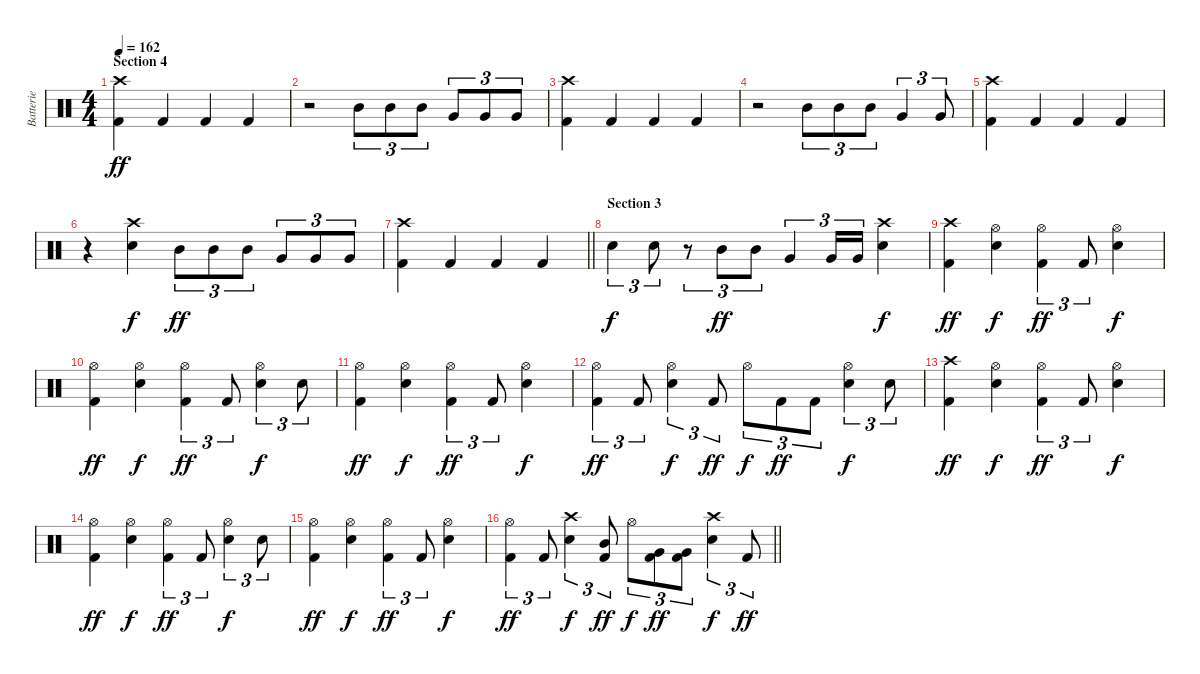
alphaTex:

\track ("Batterie" "Batterie") {instrument percussion}
\staff {score}
\articulation defaults
\ts (4 4)
\section ("" "Section 4")
\tempo 162
\clef neutral
\ks c
("Crash high (hit)" "Kick (hit) 2").4{dy ff} "Kick (hit) 2".4 "Kick (hit) 2".4 "Kick (hit) 2".4 |
r.2 "Mid Tom (hit)".8{tu (3 2)} "Mid Tom (hit)".8{tu (3 2)} "Mid Tom (hit)".8{tu (3 2)} "Very Low Tom (hit)".8{tu (3 2)} "Very Low Tom (hit)".8{tu (3 2)} "Very Low Tom (hit)".8{tu (3 2)} |
("Crash high (hit)" "Kick (hit) 2").4 "Kick (hit) 2".4 "Kick (hit) 2".4 "Kick (hit) 2".4 |
r.2 "Mid Tom (hit)".8{tu (3 2)} "Mid Tom (hit)".8{tu (3 2)} "Mid Tom (hit)".8{tu (3 2)} "Very Low Tom (hit)".4{tu (3 2)} "Very Low Tom (hit)".8{tu (3 2)} |
("Crash high (hit)" "Kick (hit) 2").4 "Kick (hit) 2".4 "Kick (hit) 2".4 "Kick (hit) 2".4 |
r.4 ("Crash high (hit)" "Snare (hit) 2").4{dy f} "Mid Tom (hit)".8{tu (3 2) dy ff} "Mid Tom (hit)".8{tu (3 2)} "Mid Tom (hit)".8{tu (3 2)} "Very Low Tom (hit)".8{tu (3 2)} "Very Low Tom (hit)".8{tu (3 2)} "Very Low Tom (hit)".8{tu (3 2)} |
\barLineRight lightlight
("Crash high (hit)" "Kick (hit) 2").4 "Kick (hit) 2".4 "Kick (hit) 2".4 "Kick (hit) 2".4 |
\section ("" "Section 3")
"Snare (hit) 2".4{tu (3 2) dy f} "Snare (hit) 2".8{tu (3 2)} r.8{tu (3 2)} "Mid Tom (hit)".8{tu (3 2) dy ff} "Mid Tom (hit)".8{tu (3 2)} "Very Low Tom (hit)".4{tu (3 2)} "Very Low Tom (hit)".16{tu (3 2)} "Very Low Tom (hit)".16{tu (3 2)} ("Crash high (hit)" "Snare (hit) 2").4{dy f} |
("Crash high (hit)" "Kick (hit) 2").4{dy ff} ("Hi-Hat (open)" "Snare (hit) 2").4{dy f} ("Hi-Hat (open)" "Kick (hit) 2").4{tu (3 2) dy ff} "Kick (hit) 2".8{tu (3 2)} ("Hi-Hat (open)" "Snare (hit) 2").4{dy f} |
("Hi-Hat (open)" "Kick (hit) 2").4{dy ff} ("Hi-Hat (open)" "Snare (hit) 2").4{dy f} ("Hi-Hat (open)" "Kick (hit) 2").4{tu (3 2) dy ff} "Kick (hit) 2".8{tu (3 2)} ("Hi-Hat (open)" "Snare (hit) 2").4{tu (3 2) dy f} "Snare (hit) 2".8{tu (3 2)} |
("Hi-Hat (open)" "Kick (hit) 2").4{dy ff} ("Hi-Hat (open)" "Snare (hit) 2").4{dy f} ("Hi-Hat (open)" "Kick (hit) 2").4{tu (3 2) dy ff} "Kick (hit) 2".8{tu (3 2)} ("Hi-Hat (open)" "Snare (hit) 2").4{dy f} |
("Hi-Hat (open)" "Kick (hit) 2").4{tu (3 2) dy ff} "Kick (hit) 2".8{tu (3 2)} ("Hi-Hat (open)" "Snare (hit) 2").4{tu (3 2) dy f} "Kick (hit) 2".8{tu (3 2) dy ff} "Hi-Hat (open)".8{tu (3 2) dy f} "Kick (hit) 2".8{tu (3 2) dy ff} "Kick (hit) 2".8{tu (3 2)} ("Hi-Hat (open)" "Snare (hit) 2").4{tu (3 2) dy f} "Snare (hit) 2".8{tu (3 2)} |
("Crash high (hit)" "Kick (hit) 2").4{dy ff} ("Hi-Hat (open)" "Snare (hit) 2").4{dy f} ("Hi-Hat (open)" "Kick (hit) 2").4{tu (3 2) dy ff} "Kick (hit) 2".8{tu (3 2)} ("Hi-Hat (open)" "Snare (hit) 2").4{dy f} |
("Hi-Hat (open)" "Kick (hit) 2").4{dy ff} ("Hi-Hat (open)" "Snare (hit) 2").4{dy f} ("Hi-Hat (open)" "Kick (hit) 2").4{tu (3 2) dy ff} "Kick (hit) 2".8{tu (3 2)} ("Hi-Hat (open)" "Snare (hit) 2").4{tu (3 2) dy f} "Snare (hit) 2".8{tu (3 2)} |
("Hi-Hat (open)" "Kick (hit) 2").4{dy ff} ("Hi-Hat (open)" "Snare (hit) 2").4{dy f} ("Hi-Hat (open)" "Kick (hit) 2").4{tu (3 2) dy ff} "Kick (hit) 2".8{tu (3 2)} ("Hi-Hat (open)" "Snare (hit) 2").4{dy f} |
\barLineRight lightlight
("Hi-Hat (open)" "Kick (hit) 2").4{tu (3 2) dy ff} "Kick (hit) 2".8{tu (3 2)} ("Crash high (hit)" "Snare (hit) 2").4{tu (3 2) dy f} ("Mid Tom (hit)" "Kick (hit) 2").8{tu (3 2) dy ff} "Hi-Hat (open)".8{tu (3 2) dy f} ("Very Low Tom (hit)" "Kick (hit) 2").8{tu (3 2) dy ff} ("Very Low Tom (hit)" "Kick (hit) 2").8{tu (3 2)} ("Crash high (hit)" "Snare (hit) 2").4{tu (3 2) dy f} "Kick (hit) 2".8{tu (3 2) dy ff}
